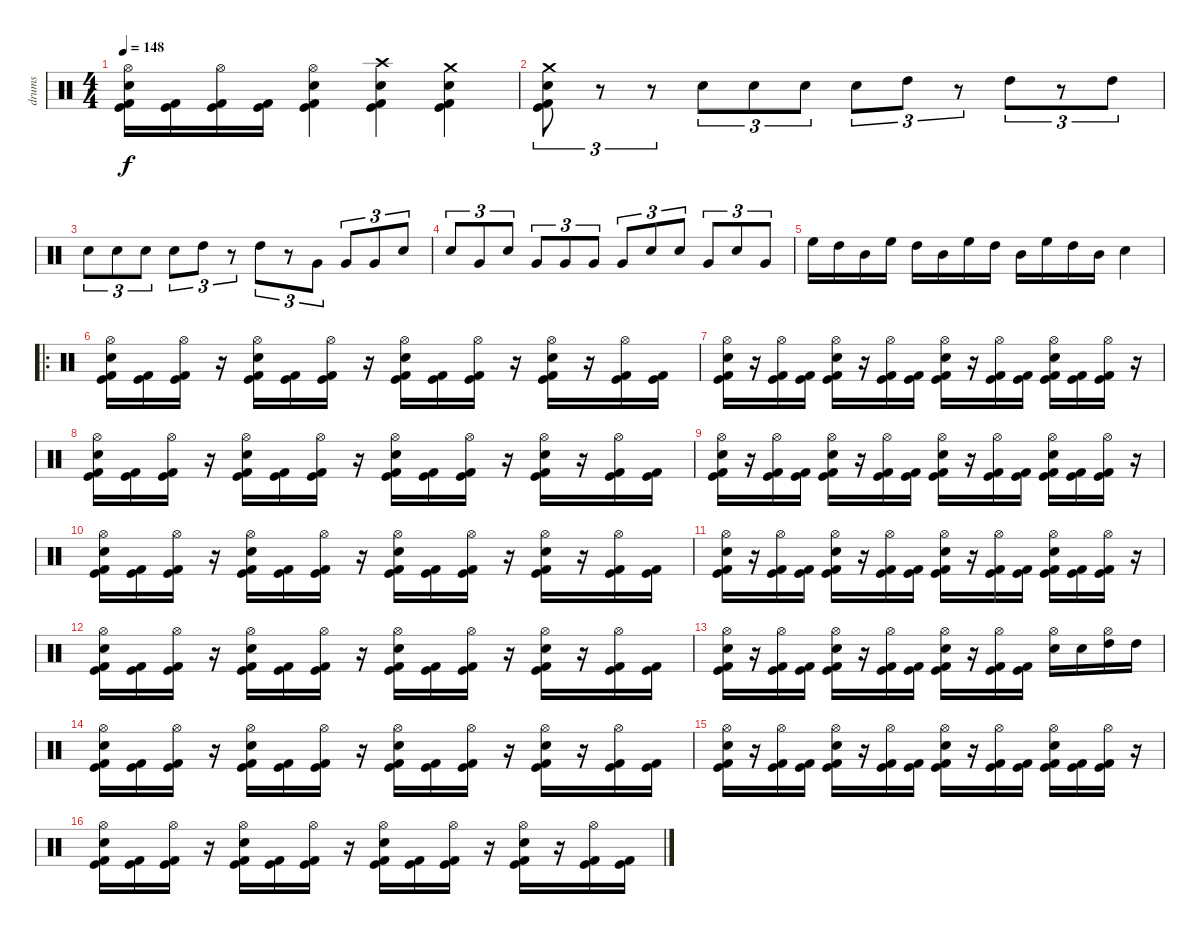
\track ("drums" "drums") {instrument percussion}
\staff {score}
\articulation defaults
\ts (4 4)
\tempo 148
\clef neutral
\ks c
("Kick (hit)" "Kick (hit) 2" "Snare (hit) 2" "Hi-Hat (open)").16{dy f} ("Kick (hit)" "Kick (hit) 2").16 ("Kick (hit)" "Kick (hit) 2" "Hi-Hat (open)").16 ("Kick (hit)" "Kick (hit) 2").16 ("Kick (hit)" "Kick (hit) 2" "Snare (hit) 2" "Hi-Hat (open)").4 ("Snare (hit) 2" "Kick (hit)" "Kick (hit) 2" "Crash high (hit)").4 ("Snare (hit) 2" "Kick (hit)" "Kick (hit) 2" "Crash medium (hit)").4 |
("Snare (hit) 2" "Kick (hit)" "Kick (hit) 2" "Crash medium (hit)").8{tu (3 2)} r.8{tu (3 2)} r.8{tu (3 2)} "Snare (hit) 2".8{tu (3 2)} "Snare (hit) 2".8{tu (3 2)} "Snare (hit) 2".8{tu (3 2)} "Snare (hit) 2".8{tu (3 2)} "High Tom (hit)".8{tu (3 2)} r.8{tu (3 2)} "High Tom (hit)".8{tu (3 2)} r.8{tu (3 2)} "High Tom (hit)".8{tu (3 2)} |
"Snare (hit) 2".8{tu (3 2)} "Snare (hit) 2".8{tu (3 2)} "Snare (hit) 2".8{tu (3 2)} "Snare (hit) 2".8{tu (3 2)} "High Tom (hit)".8{tu (3 2)} r.8{tu (3 2)} "High Tom (hit)".8{tu (3 2)} r.8{tu (3 2)} "Very Low Tom (hit)".8{tu (3 2)} "Very Low Tom (hit)".8{tu (3 2)} "Very Low Tom (hit)".8{tu (3 2)} "Snare (hit) 2".8{tu (3 2)} |
"Snare (hit) 2".8{tu (3 2)} "Very Low Tom (hit)".8{tu (3 2)} "Snare (hit) 2".8{tu (3 2)} "Very Low Tom (hit)".8{tu (3 2)} "Very Low Tom (hit)".8{tu (3 2)} "Very Low Tom (hit)".8{tu (3 2)} "Very Low Tom (hit)".8{tu (3 2)} "Snare (hit) 2".8{tu (3 2)} "Snare (hit) 2".8{tu (3 2)} "Very Low Tom (hit)".8{tu (3 2)} "Snare (hit) 2".8{tu (3 2)} "Very Low Tom (hit)".8{tu (3 2)} |
"High Floor Tom (hit)".16 "High Tom (hit)".16 "Mid Tom (hit)".16 "High Floor Tom (hit)".16 "High Tom (hit)".16 "Mid Tom (hit)".16 "High Floor Tom (hit)".16 "High Tom (hit)".16 "Mid Tom (hit)".16 "High Floor Tom (hit)".16 "High Tom (hit)".16 "Mid Tom (hit)".16 "Electric Snare (hit)".4 |
\ro
("Kick (hit)" "Kick (hit) 2" "Snare (hit) 2" "Hi-Hat (open)").16 ("Kick (hit)" "Kick (hit) 2").16 ("Kick (hit)" "Kick (hit) 2" "Hi-Hat (open)").16 r.16 ("Kick (hit)" "Kick (hit) 2" "Snare (hit) 2" "Hi-Hat (open)").16 ("Kick (hit)" "Kick (hit) 2").16 ("Kick (hit)" "Kick (hit) 2" "Hi-Hat (open)").16 r.16 ("Kick (hit)" "Kick (hit) 2" "Snare (hit) 2" "Hi-Hat (open)").16 ("Kick (hit)" "Kick (hit) 2").16 ("Kick (hit)" "Kick (hit) 2" "Hi-Hat (open)").16 r.16 ("Kick (hit)" "Kick (hit) 2" "Snare (hit) 2" "Hi-Hat (open)").16 r.16 ("Kick (hit)" "Kick (hit) 2" "Hi-Hat (open)").16 ("Kick (hit)" "Kick (hit) 2").16 |
("Kick (hit)" "Kick (hit) 2" "Snare (hit) 2" "Hi-Hat (open)").16 r.16 ("Kick (hit)" "Kick (hit) 2" "Hi-Hat (open)").16 ("Kick (hit)" "Kick (hit) 2").16 ("Kick (hit)" "Kick (hit) 2" "Snare (hit) 2" "Hi-Hat (open)").16 r.16 ("Kick (hit)" "Kick (hit) 2" "Hi-Hat (open)").16 ("Kick (hit)" "Kick (hit) 2").16 ("Kick (hit)" "Kick (hit) 2" "Snare (hit) 2" "Hi-Hat (open)").16 r.16 ("Kick (hit)" "Kick (hit) 2" "Hi-Hat (open)").16 ("Kick (hit)" "Kick (hit) 2").16 ("Kick (hit)" "Kick (hit) 2" "Snare (hit) 2" "Hi-Hat (open)").16 ("Kick (hit)" "Kick (hit) 2").16 ("Kick (hit)" "Kick (hit) 2" "Hi-Hat (open)").16 r.16 |
("Kick (hit)" "Kick (hit) 2" "Snare (hit) 2" "Hi-Hat (open)").16 ("Kick (hit)" "Kick (hit) 2").16 ("Kick (hit)" "Kick (hit) 2" "Hi-Hat (open)").16 r.16 ("Kick (hit)" "Kick (hit) 2" "Snare (hit) 2" "Hi-Hat (open)").16 ("Kick (hit)" "Kick (hit) 2").16 ("Kick (hit)" "Kick (hit) 2" "Hi-Hat (open)").16 r.16 ("Kick (hit)" "Kick (hit) 2" "Snare (hit) 2" "Hi-Hat (open)").16 ("Kick (hit)" "Kick (hit) 2").16 ("Kick (hit)" "Kick (hit) 2" "Hi-Hat (open)").16 r.16 ("Kick (hit)" "Kick (hit) 2" "Snare (hit) 2" "Hi-Hat (open)").16 r.16 ("Kick (hit)" "Kick (hit) 2" "Hi-Hat (open)").16 ("Kick (hit)" "Kick (hit) 2").16 |
("Kick (hit)" "Kick (hit) 2" "Snare (hit) 2" "Hi-Hat (open)").16 r.16 ("Kick (hit)" "Kick (hit) 2" "Hi-Hat (open)").16 ("Kick (hit)" "Kick (hit) 2").16 ("Kick (hit)" "Kick (hit) 2" "Snare (hit) 2" "Hi-Hat (open)").16 r.16 ("Kick (hit)" "Kick (hit) 2" "Hi-Hat (open)").16 ("Kick (hit)" "Kick (hit) 2").16 ("Kick (hit)" "Kick (hit) 2" "Snare (hit) 2" "Hi-Hat (open)").16 r.16 ("Kick (hit)" "Kick (hit) 2" "Hi-Hat (open)").16 ("Kick (hit)" "Kick (hit) 2").16 ("Kick (hit)" "Kick (hit) 2" "Snare (hit) 2" "Hi-Hat (open)").16 ("Kick (hit)" "Kick (hit) 2").16 ("Kick (hit)" "Kick (hit) 2" "Hi-Hat (open)").16 r.16 |
("Kick (hit)" "Kick (hit) 2" "Snare (hit) 2" "Hi-Hat (open)").16 ("Kick (hit)" "Kick (hit) 2").16 ("Kick (hit)" "Kick (hit) 2" "Hi-Hat (open)").16 r.16 ("Kick (hit)" "Kick (hit) 2" "Snare (hit) 2" "Hi-Hat (open)").16 ("Kick (hit)" "Kick (hit) 2").16 ("Kick (hit)" "Kick (hit) 2" "Hi-Hat (open)").16 r.16 ("Kick (hit)" "Kick (hit) 2" "Snare (hit) 2" "Hi-Hat (open)").16 ("Kick (hit)" "Kick (hit) 2").16 ("Kick (hit)" "Kick (hit) 2" "Hi-Hat (open)").16 r.16 ("Kick (hit)" "Kick (hit) 2" "Snare (hit) 2" "Hi-Hat (open)").16 r.16 ("Kick (hit)" "Kick (hit) 2" "Hi-Hat (open)").16 ("Kick (hit)" "Kick (hit) 2").16 |
("Kick (hit)" "Kick (hit) 2" "Snare (hit) 2" "Hi-Hat (open)").16 r.16 ("Kick (hit)" "Kick (hit) 2" "Hi-Hat (open)").16 ("Kick (hit)" "Kick (hit) 2").16 ("Kick (hit)" "Kick (hit) 2" "Snare (hit) 2" "Hi-Hat (open)").16 r.16 ("Kick (hit)" "Kick (hit) 2" "Hi-Hat (open)").16 ("Kick (hit)" "Kick (hit) 2").16 ("Kick (hit)" "Kick (hit) 2" "Snare (hit) 2" "Hi-Hat (open)").16 r.16 ("Kick (hit)" "Kick (hit) 2" "Hi-Hat (open)").16 ("Kick (hit)" "Kick (hit) 2").16 ("Kick (hit)" "Kick (hit) 2" "Snare (hit) 2" "Hi-Hat (open)").16 ("Kick (hit)" "Kick (hit) 2").16 ("Kick (hit)" "Kick (hit) 2" "Hi-Hat (open)").16 r.16 |
("Kick (hit)" "Kick (hit) 2" "Snare (hit) 2" "Hi-Hat (open)").16 ("Kick (hit)" "Kick (hit) 2").16 ("Kick (hit)" "Kick (hit) 2" "Hi-Hat (open)").16 r.16 ("Kick (hit)" "Kick (hit) 2" "Snare (hit) 2" "Hi-Hat (open)").16 ("Kick (hit)" "Kick (hit) 2").16 ("Kick (hit)" "Kick (hit) 2" "Hi-Hat (open)").16 r.16 ("Kick (hit)" "Kick (hit) 2" "Snare (hit) 2" "Hi-Hat (open)").16 ("Kick (hit)" "Kick (hit) 2").16 ("Kick (hit)" "Kick (hit) 2" "Hi-Hat (open)").16 r.16 ("Kick (hit)" "Kick (hit) 2" "Snare (hit) 2" "Hi-Hat (open)").16 r.16 ("Kick (hit)" "Kick (hit) 2" "Hi-Hat (open)").16 ("Kick (hit)" "Kick (hit) 2").16 |
("Kick (hit)" "Kick (hit) 2" "Snare (hit) 2" "Hi-Hat (open)").16 r.16 ("Kick (hit)" "Kick (hit) 2" "Hi-Hat (open)").16 ("Kick (hit)" "Kick (hit) 2").16 ("Kick (hit)" "Kick (hit) 2" "Snare (hit) 2" "Hi-Hat (open)").16 r.16 ("Kick (hit)" "Kick (hit) 2" "Hi-Hat (open)").16 ("Kick (hit)" "Kick (hit) 2").16 ("Kick (hit)" "Kick (hit) 2" "Snare (hit) 2" "Hi-Hat (open)").16 r.16 ("Kick (hit)" "Kick (hit) 2" "Hi-Hat (open)").16 ("Kick (hit)" "Kick (hit) 2").16 ("Snare (hit) 2" "Hi-Hat (open)").16 "Snare (hit) 2".16 ("High Tom (hit)" "Hi-Hat (open)").16 "High Tom (hit)".16 |
("Kick (hit)" "Kick (hit) 2" "Snare (hit) 2" "Hi-Hat (open)").16 ("Kick (hit)" "Kick (hit) 2").16 ("Kick (hit)" "Kick (hit) 2" "Hi-Hat (open)").16 r.16 ("Kick (hit)" "Kick (hit) 2" "Snare (hit) 2" "Hi-Hat (open)").16 ("Kick (hit)" "Kick (hit) 2").16 ("Kick (hit)" "Kick (hit) 2" "Hi-Hat (open)").16 r.16 ("Kick (hit)" "Kick (hit) 2" "Snare (hit) 2" "Hi-Hat (open)").16 ("Kick (hit)" "Kick (hit) 2").16 ("Kick (hit)" "Kick (hit) 2" "Hi-Hat (open)").16 r.16 ("Kick (hit)" "Kick (hit) 2" "Snare (hit) 2" "Hi-Hat (open)").16 r.16 ("Kick (hit)" "Kick (hit) 2" "Hi-Hat (open)").16 ("Kick (hit)" "Kick (hit) 2").16 |
("Kick (hit)" "Kick (hit) 2" "Snare (hit) 2" "Hi-Hat (open)").16 r.16 ("Kick (hit)" "Kick (hit) 2" "Hi-Hat (open)").16 ("Kick (hit)" "Kick (hit) 2").16 ("Kick (hit)" "Kick (hit) 2" "Snare (hit) 2" "Hi-Hat (open)").16 r.16 ("Kick (hit)" "Kick (hit) 2" "Hi-Hat (open)").16 ("Kick (hit)" "Kick (hit) 2").16 ("Kick (hit)" "Kick (hit) 2" "Snare (hit) 2" "Hi-Hat (open)").16 r.16 ("Kick (hit)" "Kick (hit) 2" "Hi-Hat (open)").16 ("Kick (hit)" "Kick (hit) 2").16 ("Kick (hit)" "Kick (hit) 2" "Snare (hit) 2" "Hi-Hat (open)").16 ("Kick (hit)" "Kick (hit) 2").16 ("Kick (hit)" "Kick (hit) 2" "Hi-Hat (open)").16 r.16 |
("Kick (hit)" "Kick (hit) 2" "Snare (hit) 2" "Hi-Hat (open)").16 ("Kick (hit)" "Kick (hit) 2").16 ("Kick (hit)" "Kick (hit) 2" "Hi-Hat (open)").16 r.16 ("Kick (hit)" "Kick (hit) 2" "Snare (hit) 2" "Hi-Hat (open)").16 ("Kick (hit)" "Kick (hit) 2").16 ("Kick (hit)" "Kick (hit) 2" "Hi-Hat (open)").16 r.16 ("Kick (hit)" "Kick (hit) 2" "Snare (hit) 2" "Hi-Hat (open)").16 ("Kick (hit)" "Kick (hit) 2").16 ("Kick (hit)" "Kick (hit) 2" "Hi-Hat (open)").16 r.16 ("Kick (hit)" "Kick (hit) 2" "Snare (hit) 2" "Hi-Hat (open)").16 r.16 ("Kick (hit)" "Kick (hit) 2" "Hi-Hat (open)").16 ("Kick (hit)" "Kick (hit) 2").16
